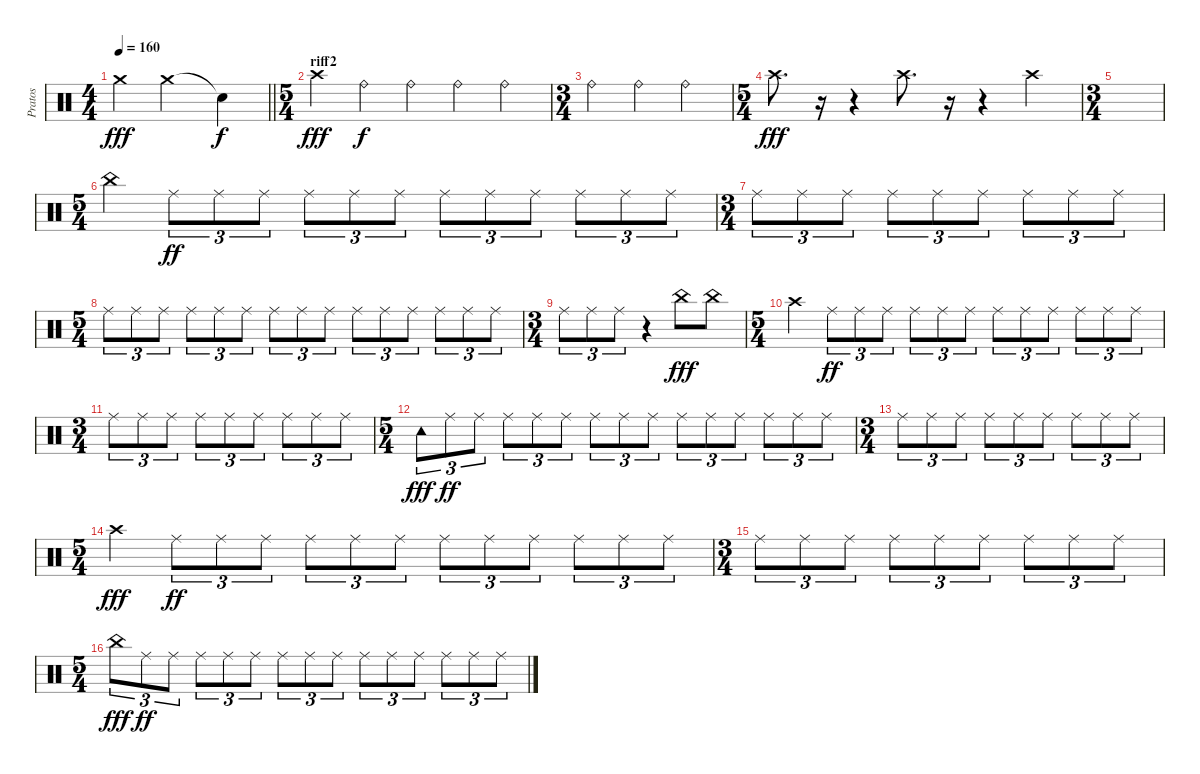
\track ("Pratos" "Pratos") {instrument percussion}
\staff {score}
\articulation defaults
\ts (4 4)
\tempo 160
\clef neutral
\barLineRight lightlight
\ks c "Crash medium (hit)".4{dy fff} "Crash medium (hit)".2 "Snare (hit)"{t}.4{dy f}
|
\ts (5 4)
\section ("" "riff2")
"Crash high (hit)".4{dy fff} "Ride (bell)".4{dy f} "Ride (bell)".4 "Ride (bell)".4 "Ride (bell)".4 |
\ts (3 4)
"Ride (bell)".4 "Ride (bell)".4 "Ride (bell)".4 |
\ts (5 4)
"Crash high (hit)".8{d dy fff} r.16 r.4 "Crash high (hit)".8{d} r.16 r.4 "Crash high (hit)".4 |
\ts (3 4)
|
\ts (5 4)
"China (hit)".4 "Ride (middle)".8{tu (3 2) dy ff} "Ride (middle)".8{tu (3 2)} "Ride (middle)".8{tu (3 2)} "Ride (middle)".8{tu (3 2)} "Ride (middle)".8{tu (3 2)} "Ride (middle)".8{tu (3 2)} "Ride (middle)".8{tu (3 2)} "Ride (middle)".8{tu (3 2)} "Ride (middle)".8{tu (3 2)} "Ride (middle)".8{tu (3 2)} "Ride (middle)".8{tu (3 2)} "Ride (middle)".8{tu (3 2)} |
\ts (3 4)
"Ride (middle)".8{tu (3 2)} "Ride (middle)".8{tu (3 2)} "Ride (middle)".8{tu (3 2)} "Ride (middle)".8{tu (3 2)} "Ride (middle)".8{tu (3 2)} "Ride (middle)".8{tu (3 2)} "Ride (middle)".8{tu (3 2)} "Ride (middle)".8{tu (3 2)} "Ride (middle)".8{tu (3 2)} |
\ts (5 4)
"Ride (middle)".8{tu (3 2)} "Ride (middle)".8{tu (3 2)} "Ride (middle)".8{tu (3 2)} "Ride (middle)".8{tu (3 2)} "Ride (middle)".8{tu (3 2)} "Ride (middle)".8{tu (3 2)} "Ride (middle)".8{tu (3 2)} "Ride (middle)".8{tu (3 2)} "Ride (middle)".8{tu (3 2)} "Ride (middle)".8{tu (3 2)} "Ride (middle)".8{tu (3 2)} "Ride (middle)".8{tu (3 2)} "Ride (middle)".8{tu (3 2)} "Ride (middle)".8{tu (3 2)} "Ride (middle)".8{tu (3 2)} |
\ts (3 4)
"Ride (middle)".8{tu (3 2)} "Ride (middle)".8{tu (3 2)} "Ride (middle)".8{tu (3 2)} r.4 "China (hit)".8{dy fff} "China (hit)".8 |
\ts (5 4)
"Crash high (hit)".4 "Ride (middle)".8{tu (3 2) dy ff} "Ride (middle)".8{tu (3 2)} "Ride (middle)".8{tu (3 2)} "Ride (middle)".8{tu (3 2)} "Ride (middle)".8{tu (3 2)} "Ride (middle)".8{tu (3 2)} "Ride (middle)".8{tu (3 2)} "Ride (middle)".8{tu (3 2)} "Ride (middle)".8{tu (3 2)} "Ride (middle)".8{tu (3 2)} "Ride (middle)".8{tu (3 2)} "Ride (middle)".8{tu (3 2)} |
\ts (3 4)
"Ride (middle)".8{tu (3 2)} "Ride (middle)".8{tu (3 2)} "Ride (middle)".8{tu (3 2)} "Ride (middle)".8{tu (3 2)} "Ride (middle)".8{tu (3 2)} "Ride (middle)".8{tu (3 2)} "Ride (middle)".8{tu (3 2)} "Ride (middle)".8{tu (3 2)} "Ride (middle)".8{tu (3 2)} |
\ts (5 4)
"Tambourine (hit)".8{tu (3 2) dy fff} "Ride (middle)".8{tu (3 2) dy ff} "Ride (middle)".8{tu (3 2)} "Ride (middle)".8{tu (3 2)} "Ride (middle)".8{tu (3 2)} "Ride (middle)".8{tu (3 2)} "Ride (middle)".8{tu (3 2)} "Ride (middle)".8{tu (3 2)} "Ride (middle)".8{tu (3 2)} "Ride (middle)".8{tu (3 2)} "Ride (middle)".8{tu (3 2)} "Ride (middle)".8{tu (3 2)} "Ride (middle)".8{tu (3 2)} "Ride (middle)".8{tu (3 2)} "Ride (middle)".8{tu (3 2)} |
\ts (3 4)
"Ride (middle)".8{tu (3 2)} "Ride (middle)".8{tu (3 2)} "Ride (middle)".8{tu (3 2)} "Ride (middle)".8{tu (3 2)} "Ride (middle)".8{tu (3 2)} "Ride (middle)".8{tu (3 2)} "Ride (middle)".8{tu (3 2)} "Ride (middle)".8{tu (3 2)} "Ride (middle)".8{tu (3 2)} |
\ts (5 4)
"Crash high (hit)".4{dy fff} "Ride (middle)".8{tu (3 2) dy ff} "Ride (middle)".8{tu (3 2)} "Ride (middle)".8{tu (3 2)} "Ride (middle)".8{tu (3 2)} "Ride (middle)".8{tu (3 2)} "Ride (middle)".8{tu (3 2)} "Ride (middle)".8{tu (3 2)} "Ride (middle)".8{tu (3 2)} "Ride (middle)".8{tu (3 2)} "Ride (middle)".8{tu (3 2)} "Ride (middle)".8{tu (3 2)} "Ride (middle)".8{tu (3 2)} |
\ts (3 4)
"Ride (middle)".8{tu (3 2)} "Ride (middle)".8{tu (3 2)} "Ride (middle)".8{tu (3 2)} "Ride (middle)".8{tu (3 2)} "Ride (middle)".8{tu (3 2)} "Ride (middle)".8{tu (3 2)} "Ride (middle)".8{tu (3 2)} "Ride (middle)".8{tu (3 2)} "Ride (middle)".8{tu (3 2)} |
\ts (5 4)
"China (hit)".8{tu (3 2) dy fff} "Ride (middle)".8{tu (3 2) dy ff} "Ride (middle)".8{tu (3 2)} "Ride (middle)".8{tu (3 2)} "Ride (middle)".8{tu (3 2)} "Ride (middle)".8{tu (3 2)} "Ride (middle)".8{tu (3 2)} "Ride (middle)".8{tu (3 2)} "Ride (middle)".8{tu (3 2)} "Ride (middle)".8{tu (3 2)} "Ride (middle)".8{tu (3 2)} "Ride (middle)".8{tu (3 2)} "Ride (middle)".8{tu (3 2)} "Ride (middle)".8{tu (3 2)} "Ride (middle)".8{tu (3 2)}
